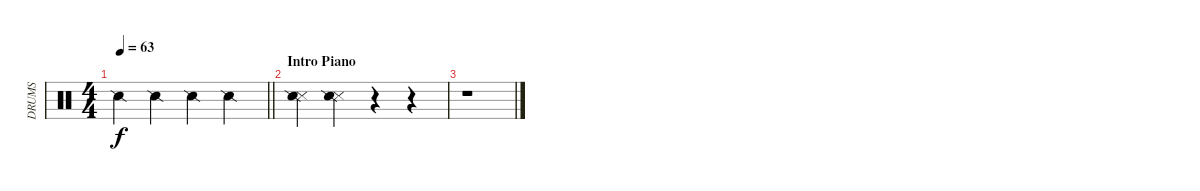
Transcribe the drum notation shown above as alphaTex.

\track ("DRUMS" "DRUMS") {instrument percussion}
\staff {score}
\articulation defaults
\ts (4 4)
\tempo 63
\clef neutral
\barLineRight lightlight
\ks c "Snare (side stick) 2".4{dy f} "Snare (side stick) 2".4 "Snare (side stick) 2".4 "Snare (side stick) 2".4
|
\section ("" "Intro Piano")
("Snare (side stick) 3" "Snare (side stick) 2").4 ("Snare (side stick) 3" "Snare (side stick) 2").4 r.4 r.4 |
r.1
